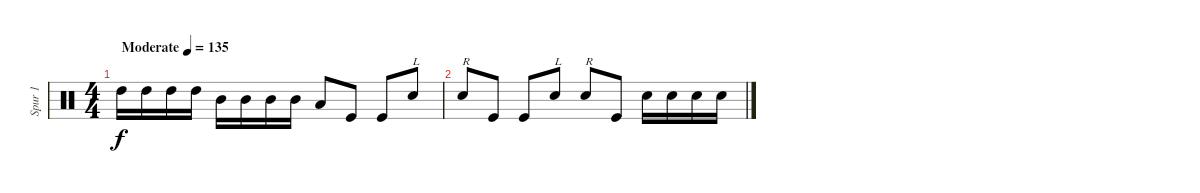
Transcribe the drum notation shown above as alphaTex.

\track ("Spur 1" "Spur 1") {instrument percussion}
\staff {score}
\articulation defaults
\ts (4 4)
\tempo (135 "Moderate")
\clef neutral
\ks c "High Tom (hit)".16{dy f} "High Tom (hit)".16 "High Tom (hit)".16 "High Tom (hit)".16 "Mid Tom (hit)".16 "Mid Tom (hit)".16 "Mid Tom (hit)".16 "Mid Tom (hit)".16 "Low Floor Tom (hit)".8 "Kick (hit)".8 "Kick (hit)".8 "Snare (hit) 2".8{txt "L"}
|
"Snare (hit) 2".8{txt "R"} "Kick (hit)".8 "Kick (hit)".8 "Snare (hit) 2".8{txt "L"} "Snare (hit) 2".8{txt "R"} "Kick (hit)".8 "Snare (hit) 2".16 "Snare (hit) 2".16 "Snare (hit) 2".16 "Snare (hit) 2".16
